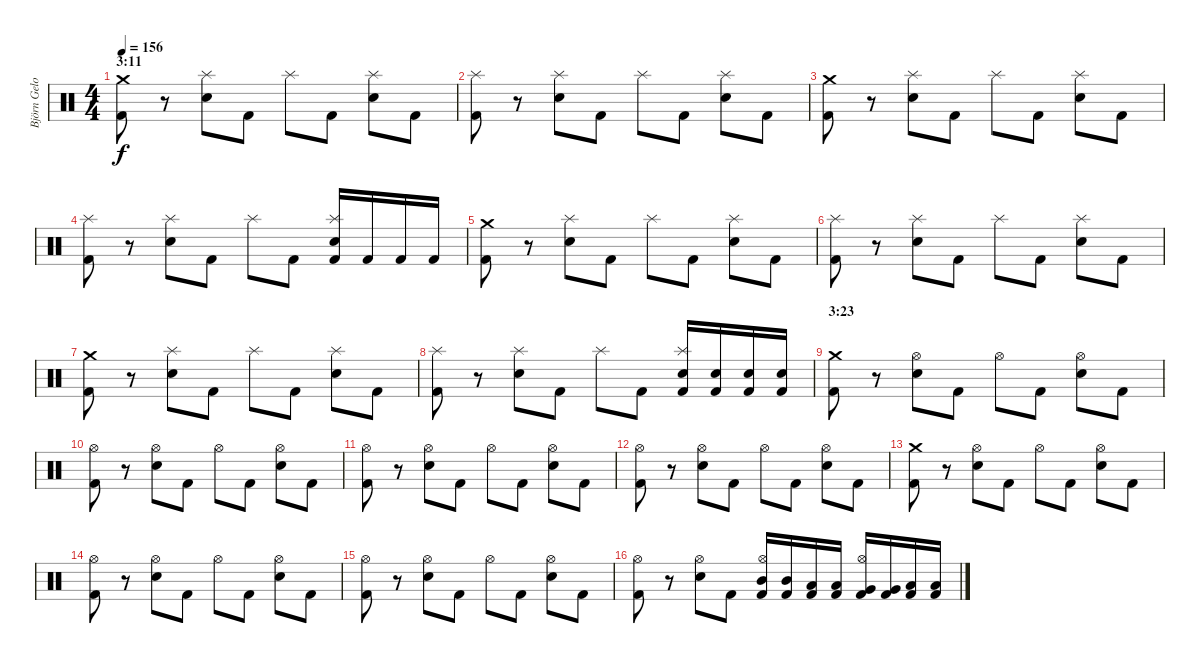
\track ("Björn Gelotte" "Björn Gelo") {instrument percussion}
\staff {score}
\articulation defaults
\ts (4 4)
\section ("" "3:11")
\tempo 156
\clef neutral
\ks c
("Crash medium (hit)" "Kick (hit) 2").8{dy f} r.8 ("Splash (hit)" "Electric Snare (hit)").8 "Kick (hit) 2".8 "Splash (hit)".8 "Kick (hit) 2".8 ("Splash (hit)" "Electric Snare (hit)").8 "Kick (hit) 2".8 |
("Splash (hit)" "Kick (hit) 2").8 r.8 ("Splash (hit)" "Electric Snare (hit)").8 "Kick (hit) 2".8 "Splash (hit)".8 "Kick (hit) 2".8 ("Splash (hit)" "Electric Snare (hit)").8 "Kick (hit) 2".8 |
("Crash medium (hit)" "Kick (hit) 2").8 r.8 ("Splash (hit)" "Electric Snare (hit)").8 "Kick (hit) 2".8 "Splash (hit)".8 "Kick (hit) 2".8 ("Splash (hit)" "Electric Snare (hit)").8 "Kick (hit) 2".8 |
("Splash (hit)" "Kick (hit) 2").8 r.8 ("Splash (hit)" "Electric Snare (hit)").8 "Kick (hit) 2".8 "Splash (hit)".8 "Kick (hit) 2".8 ("Splash (hit)" "Electric Snare (hit)" "Kick (hit) 2").16 "Kick (hit) 2".16 "Kick (hit) 2".16 "Kick (hit) 2".16 |
("Crash medium (hit)" "Kick (hit) 2").8 r.8 ("Splash (hit)" "Electric Snare (hit)").8 "Kick (hit) 2".8 "Splash (hit)".8 "Kick (hit) 2".8 ("Splash (hit)" "Electric Snare (hit)").8 "Kick (hit) 2".8 |
("Splash (hit)" "Kick (hit) 2").8 r.8 ("Splash (hit)" "Electric Snare (hit)").8 "Kick (hit) 2".8 "Splash (hit)".8 "Kick (hit) 2".8 ("Splash (hit)" "Electric Snare (hit)").8 "Kick (hit) 2".8 |
("Crash medium (hit)" "Kick (hit) 2").8 r.8 ("Splash (hit)" "Electric Snare (hit)").8 "Kick (hit) 2".8 "Splash (hit)".8 "Kick (hit) 2".8 ("Splash (hit)" "Electric Snare (hit)").8 "Kick (hit) 2".8 |
("Splash (hit)" "Kick (hit) 2").8 r.8 ("Splash (hit)" "Electric Snare (hit)").8 "Kick (hit) 2".8 "Splash (hit)".8 "Kick (hit) 2".8 ("Splash (hit)" "Electric Snare (hit)" "Kick (hit) 2").16 ("Electric Snare (hit)" "Kick (hit) 2").16 ("Electric Snare (hit)" "Kick (hit) 2").16 ("Electric Snare (hit)" "Kick (hit) 2").16 |
\section ("" "3:23")
("Crash medium (hit)" "Kick (hit) 2").8 r.8 ("Hi-Hat (open)" "Electric Snare (hit)").8 "Kick (hit) 2".8 "Hi-Hat (open)".8 "Kick (hit) 2".8 ("Hi-Hat (open)" "Electric Snare (hit)").8 "Kick (hit) 2".8 |
("Hi-Hat (open)" "Kick (hit) 2").8 r.8 ("Hi-Hat (open)" "Electric Snare (hit)").8 "Kick (hit) 2".8 "Hi-Hat (open)".8 "Kick (hit) 2".8 ("Hi-Hat (open)" "Electric Snare (hit)").8 "Kick (hit) 2".8 |
("Hi-Hat (open)" "Kick (hit) 2").8 r.8 ("Hi-Hat (open)" "Electric Snare (hit)").8 "Kick (hit) 2".8 "Hi-Hat (open)".8 "Kick (hit) 2".8 ("Hi-Hat (open)" "Electric Snare (hit)").8 "Kick (hit) 2".8 |
("Hi-Hat (open)" "Kick (hit) 2").8 r.8 ("Hi-Hat (open)" "Electric Snare (hit)").8 "Kick (hit) 2".8 "Hi-Hat (open)".8 "Kick (hit) 2".8 ("Hi-Hat (open)" "Electric Snare (hit)").8 "Kick (hit) 2".8 |
("Crash medium (hit)" "Kick (hit) 2").8 r.8 ("Hi-Hat (open)" "Electric Snare (hit)").8 "Kick (hit) 2".8 "Hi-Hat (open)".8 "Kick (hit) 2".8 ("Hi-Hat (open)" "Electric Snare (hit)").8 "Kick (hit) 2".8 |
("Hi-Hat (open)" "Kick (hit) 2").8 r.8 ("Hi-Hat (open)" "Electric Snare (hit)").8 "Kick (hit) 2".8 "Hi-Hat (open)".8 "Kick (hit) 2".8 ("Hi-Hat (open)" "Electric Snare (hit)").8 "Kick (hit) 2".8 |
("Hi-Hat (open)" "Kick (hit) 2").8 r.8 ("Hi-Hat (open)" "Electric Snare (hit)").8 "Kick (hit) 2".8 "Hi-Hat (open)".8 "Kick (hit) 2".8 ("Hi-Hat (open)" "Electric Snare (hit)").8 "Kick (hit) 2".8 |
("Hi-Hat (open)" "Kick (hit) 2").8 r.8 ("Hi-Hat (open)" "Electric Snare (hit)").8 "Kick (hit) 2".8 ("Hi-Hat (open)" "Mid Tom (hit)" "Kick (hit) 2").16 ("Mid Tom (hit)" "Kick (hit) 2").16 ("Low Tom (hit)" "Kick (hit) 2").16 ("Low Tom (hit)" "Kick (hit) 2").16 ("Hi-Hat (open)" "Very Low Tom (hit)" "Kick (hit) 2").16 ("Very Low Tom (hit)" "Kick (hit) 2").16 ("Low Floor Tom (hit)" "Kick (hit) 2").16 ("Low Floor Tom (hit)" "Kick (hit) 2").16
